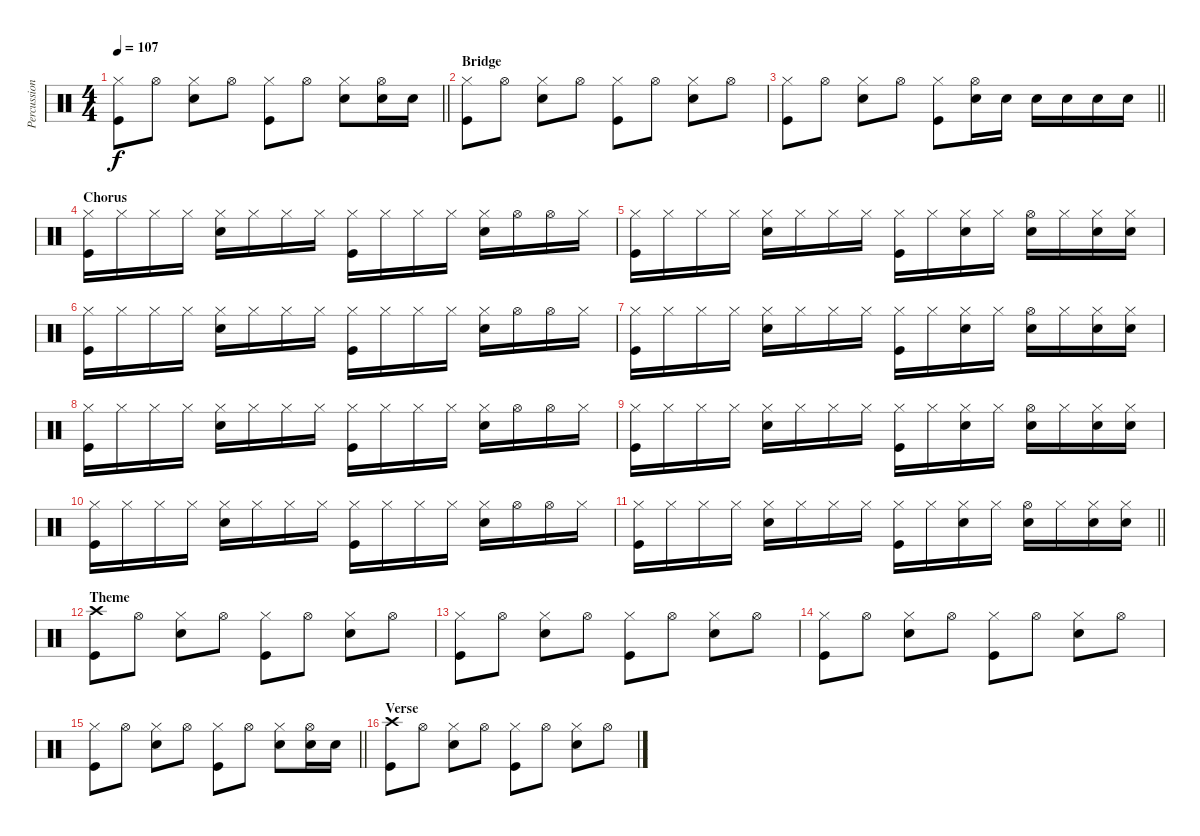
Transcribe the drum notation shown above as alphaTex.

\track ("Percussion" "Percussion") {instrument percussion}
\staff {score}
\articulation defaults
\ts (4 4)
\tempo 107
\clef neutral
\barLineRight lightlight
\ks c
("Hi-Hat (closed)" "Kick (hit)").8{dy f} "Hi-Hat (open)".8 ("Hi-Hat (closed)" "Snare (hit) 2").8 "Hi-Hat (open)".8 ("Hi-Hat (closed)" "Kick (hit)").8 "Hi-Hat (open)".8 ("Hi-Hat (closed)" "Snare (hit) 2").8 ("Hi-Hat (open)" "Snare (hit) 2").16 "Snare (hit) 2".16 |
\section ("" "Bridge")
("Hi-Hat (closed)" "Kick (hit)").8 "Hi-Hat (open)".8 ("Hi-Hat (closed)" "Snare (hit) 2").8 "Hi-Hat (open)".8 ("Hi-Hat (closed)" "Kick (hit)").8 "Hi-Hat (open)".8 ("Hi-Hat (closed)" "Snare (hit) 2").8 "Hi-Hat (open)".8 |
\barLineRight lightlight
("Hi-Hat (closed)" "Kick (hit)").8 "Hi-Hat (open)".8 ("Hi-Hat (closed)" "Snare (hit) 2").8 "Hi-Hat (open)".8 ("Hi-Hat (closed)" "Kick (hit)").8 ("Hi-Hat (open)" "Snare (hit) 2").16 "Snare (hit) 2".16 "Snare (hit) 2".16 "Snare (hit) 2".16 "Snare (hit) 2".16 "Snare (hit) 2".16 |
\section ("" "Chorus")
("Hi-Hat (closed)" "Kick (hit)").16 "Hi-Hat (closed)".16 "Hi-Hat (closed)".16 "Hi-Hat (closed)".16 ("Hi-Hat (closed)" "Snare (hit) 2").16 "Hi-Hat (closed)".16 "Hi-Hat (closed)".16 "Hi-Hat (closed)".16 ("Hi-Hat (closed)" "Kick (hit)").16 "Hi-Hat (closed)".16 "Hi-Hat (closed)".16 "Hi-Hat (closed)".16 ("Hi-Hat (closed)" "Snare (hit) 2").16 "Hi-Hat (open)".16 "Hi-Hat (open)".16 "Hi-Hat (closed)".16 |
("Hi-Hat (closed)" "Kick (hit)").16 "Hi-Hat (closed)".16 "Hi-Hat (closed)".16 "Hi-Hat (closed)".16 ("Hi-Hat (closed)" "Snare (hit) 2").16 "Hi-Hat (closed)".16 "Hi-Hat (closed)".16 "Hi-Hat (closed)".16 ("Hi-Hat (closed)" "Kick (hit)").16 "Hi-Hat (closed)".16 ("Hi-Hat (closed)" "Snare (hit) 2").16 "Hi-Hat (closed)".16 ("Hi-Hat (open)" "Snare (hit) 2").16 "Hi-Hat (closed)".16 ("Hi-Hat (closed)" "Snare (hit) 2").16 ("Hi-Hat (closed)" "Snare (hit) 2").16 |
("Hi-Hat (closed)" "Kick (hit)").16 "Hi-Hat (closed)".16 "Hi-Hat (closed)".16 "Hi-Hat (closed)".16 ("Hi-Hat (closed)" "Snare (hit) 2").16 "Hi-Hat (closed)".16 "Hi-Hat (closed)".16 "Hi-Hat (closed)".16 ("Hi-Hat (closed)" "Kick (hit)").16 "Hi-Hat (closed)".16 "Hi-Hat (closed)".16 "Hi-Hat (closed)".16 ("Hi-Hat (closed)" "Snare (hit) 2").16 "Hi-Hat (open)".16 "Hi-Hat (open)".16 "Hi-Hat (closed)".16 |
("Hi-Hat (closed)" "Kick (hit)").16 "Hi-Hat (closed)".16 "Hi-Hat (closed)".16 "Hi-Hat (closed)".16 ("Hi-Hat (closed)" "Snare (hit) 2").16 "Hi-Hat (closed)".16 "Hi-Hat (closed)".16 "Hi-Hat (closed)".16 ("Hi-Hat (closed)" "Kick (hit)").16 "Hi-Hat (closed)".16 ("Hi-Hat (closed)" "Snare (hit) 2").16 "Hi-Hat (closed)".16 ("Hi-Hat (open)" "Snare (hit) 2").16 "Hi-Hat (closed)".16 ("Hi-Hat (closed)" "Snare (hit) 2").16 ("Hi-Hat (closed)" "Snare (hit) 2").16 |
("Hi-Hat (closed)" "Kick (hit)").16 "Hi-Hat (closed)".16 "Hi-Hat (closed)".16 "Hi-Hat (closed)".16 ("Hi-Hat (closed)" "Snare (hit) 2").16 "Hi-Hat (closed)".16 "Hi-Hat (closed)".16 "Hi-Hat (closed)".16 ("Hi-Hat (closed)" "Kick (hit)").16 "Hi-Hat (closed)".16 "Hi-Hat (closed)".16 "Hi-Hat (closed)".16 ("Hi-Hat (closed)" "Snare (hit) 2").16 "Hi-Hat (open)".16 "Hi-Hat (open)".16 "Hi-Hat (closed)".16 |
("Hi-Hat (closed)" "Kick (hit)").16 "Hi-Hat (closed)".16 "Hi-Hat (closed)".16 "Hi-Hat (closed)".16 ("Hi-Hat (closed)" "Snare (hit) 2").16 "Hi-Hat (closed)".16 "Hi-Hat (closed)".16 "Hi-Hat (closed)".16 ("Hi-Hat (closed)" "Kick (hit)").16 "Hi-Hat (closed)".16 ("Hi-Hat (closed)" "Snare (hit) 2").16 "Hi-Hat (closed)".16 ("Hi-Hat (open)" "Snare (hit) 2").16 "Hi-Hat (closed)".16 ("Hi-Hat (closed)" "Snare (hit) 2").16 ("Hi-Hat (closed)" "Snare (hit) 2").16 |
("Hi-Hat (closed)" "Kick (hit)").16 "Hi-Hat (closed)".16 "Hi-Hat (closed)".16 "Hi-Hat (closed)".16 ("Hi-Hat (closed)" "Snare (hit) 2").16 "Hi-Hat (closed)".16 "Hi-Hat (closed)".16 "Hi-Hat (closed)".16 ("Hi-Hat (closed)" "Kick (hit)").16 "Hi-Hat (closed)".16 "Hi-Hat (closed)".16 "Hi-Hat (closed)".16 ("Hi-Hat (closed)" "Snare (hit) 2").16 "Hi-Hat (open)".16 "Hi-Hat (open)".16 "Hi-Hat (closed)".16 |
\barLineRight lightlight
("Hi-Hat (closed)" "Kick (hit)").16 "Hi-Hat (closed)".16 "Hi-Hat (closed)".16 "Hi-Hat (closed)".16 ("Hi-Hat (closed)" "Snare (hit) 2").16 "Hi-Hat (closed)".16 "Hi-Hat (closed)".16 "Hi-Hat (closed)".16 ("Hi-Hat (closed)" "Kick (hit)").16 "Hi-Hat (closed)".16 ("Hi-Hat (closed)" "Snare (hit) 2").16 "Hi-Hat (closed)".16 ("Hi-Hat (open)" "Snare (hit) 2").16 "Hi-Hat (closed)".16 ("Hi-Hat (closed)" "Snare (hit) 2").16 ("Hi-Hat (closed)" "Snare (hit) 2").16 |
\section ("" "Theme")
("Crash high (hit)" "Kick (hit)").8 "Hi-Hat (open)".8 ("Hi-Hat (closed)" "Snare (hit) 2").8 "Hi-Hat (open)".8 ("Hi-Hat (closed)" "Kick (hit)").8 "Hi-Hat (open)".8 ("Hi-Hat (closed)" "Snare (hit) 2").8 "Hi-Hat (open)".8 |
("Hi-Hat (closed)" "Kick (hit)").8 "Hi-Hat (open)".8 ("Hi-Hat (closed)" "Snare (hit) 2").8 "Hi-Hat (open)".8 ("Hi-Hat (closed)" "Kick (hit)").8 "Hi-Hat (open)".8 ("Hi-Hat (closed)" "Snare (hit) 2").8 "Hi-Hat (open)".8 |
("Hi-Hat (closed)" "Kick (hit)").8 "Hi-Hat (open)".8 ("Hi-Hat (closed)" "Snare (hit) 2").8 "Hi-Hat (open)".8 ("Hi-Hat (closed)" "Kick (hit)").8 "Hi-Hat (open)".8 ("Hi-Hat (closed)" "Snare (hit) 2").8 "Hi-Hat (open)".8 |
\barLineRight lightlight
("Hi-Hat (closed)" "Kick (hit)").8 "Hi-Hat (open)".8 ("Hi-Hat (closed)" "Snare (hit) 2").8 "Hi-Hat (open)".8 ("Hi-Hat (closed)" "Kick (hit)").8 "Hi-Hat (open)".8 ("Hi-Hat (closed)" "Snare (hit) 2").8 ("Hi-Hat (open)" "Snare (hit) 2").16 "Snare (hit) 2".16 |
\section ("" "Verse")
("Crash high (hit)" "Kick (hit)").8 "Hi-Hat (open)".8 ("Hi-Hat (closed)" "Snare (hit) 2").8 "Hi-Hat (open)".8 ("Hi-Hat (closed)" "Kick (hit)").8 "Hi-Hat (open)".8 ("Hi-Hat (closed)" "Snare (hit) 2").8 "Hi-Hat (open)".8
